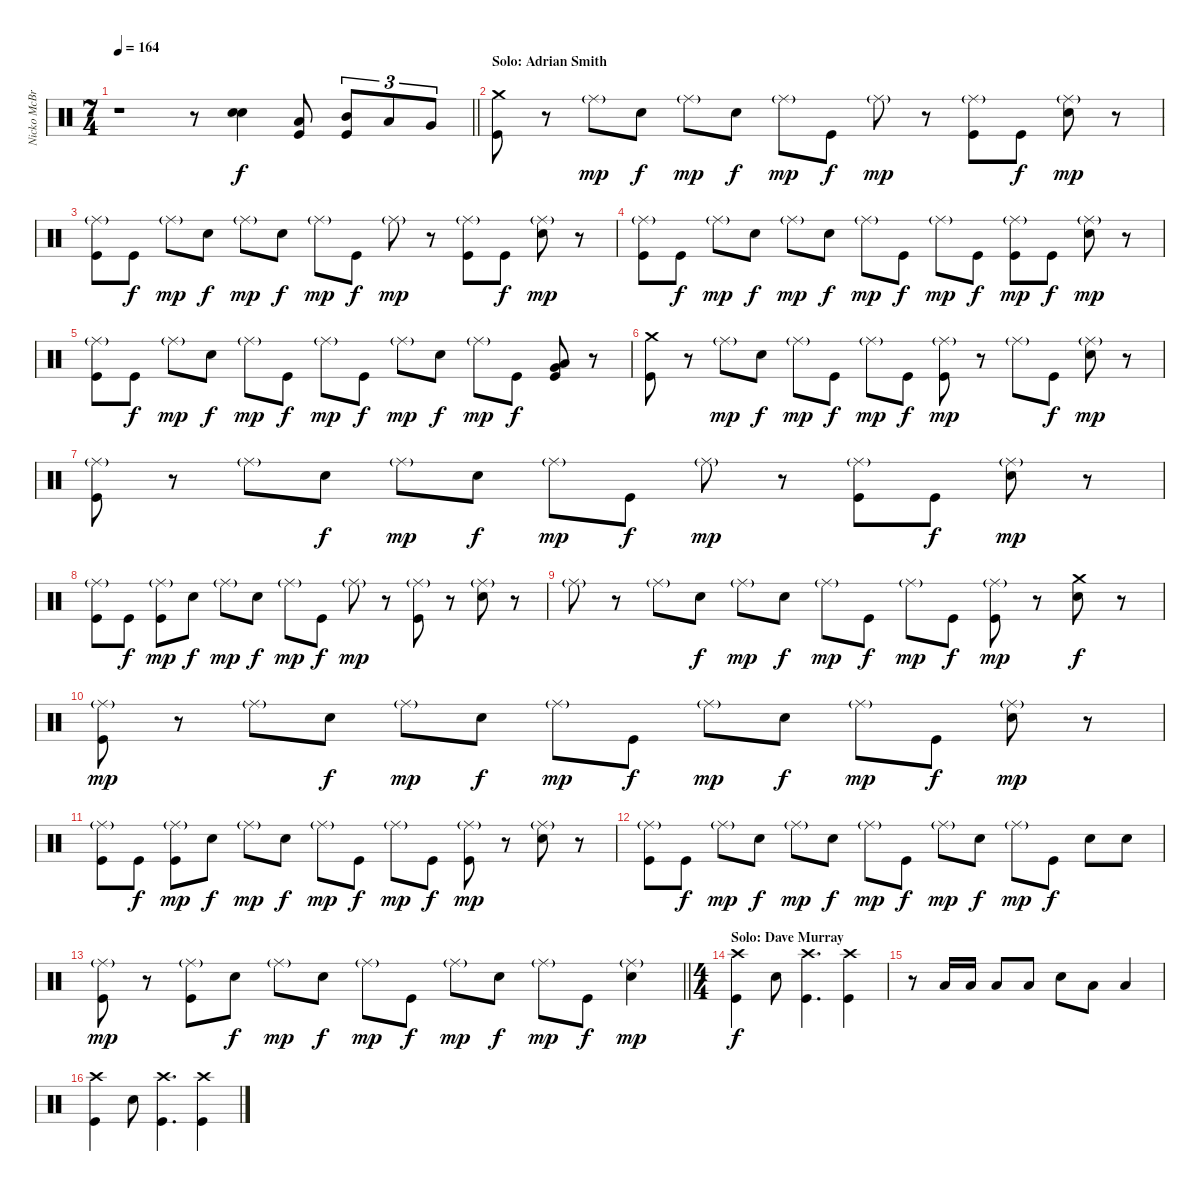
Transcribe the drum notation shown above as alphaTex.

\track ("Nicko McBrain" "Nicko McBr") {instrument percussion}
\staff {score}
\articulation defaults
\ts (7 4)
\tempo 164
\clef neutral
\barLineRight lightlight
\ks c
r.1{dy f} r.8 ("Electric Snare (hit)" "Electric Snare (hit)").4 ("Low Tom (hit)" "Kick (hit)").8 ("Mid Tom (hit)" "Kick (hit)").8{tu (3 2)} "Low Tom (hit)".8{tu (3 2)} "Very Low Tom (hit)".8{tu (3 2)} |
\section ("" "Solo: Adrian Smith")
("Crash medium (hit)" "Kick (hit)").8 r.8 "Ride (middle)"{g}.8{dy mp} "Electric Snare (hit)".8{dy f} "Ride (middle)"{g}.8{dy mp} "Electric Snare (hit)".8{dy f} "Ride (middle)"{g}.8{dy mp} "Kick (hit)".8{dy f} "Ride (middle)"{g}.8{dy mp} r.8 ("Ride (middle)"{g} "Kick (hit)").8 "Kick (hit)".8{dy f} ("Ride (middle)"{g} "Electric Snare (hit)").8{dy mp} r.8 |
("Ride (middle)"{g} "Kick (hit)").8 "Kick (hit)".8{dy f} "Ride (middle)"{g}.8{dy mp} "Electric Snare (hit)".8{dy f} "Ride (middle)"{g}.8{dy mp} "Electric Snare (hit)".8{dy f} "Ride (middle)"{g}.8{dy mp} "Kick (hit)".8{dy f} "Ride (middle)"{g}.8{dy mp} r.8 ("Ride (middle)"{g} "Kick (hit)").8 "Kick (hit)".8{dy f} ("Ride (middle)"{g} "Electric Snare (hit)").8{dy mp} r.8 |
("Ride (middle)"{g} "Kick (hit)").8 "Kick (hit)".8{dy f} "Ride (middle)"{g}.8{dy mp} "Electric Snare (hit)".8{dy f} "Ride (middle)"{g}.8{dy mp} "Electric Snare (hit)".8{dy f} "Ride (middle)"{g}.8{dy mp} "Kick (hit)".8{dy f} "Ride (middle)"{g}.8{dy mp} "Kick (hit)".8{dy f} ("Ride (middle)"{g} "Kick (hit)").8{dy mp} "Kick (hit)".8{dy f} ("Ride (middle)"{g} "Electric Snare (hit)").8{dy mp} r.8 |
("Ride (middle)"{g} "Kick (hit)").8 "Kick (hit)".8{dy f} "Ride (middle)"{g}.8{dy mp} "Electric Snare (hit)".8{dy f} "Ride (middle)"{g}.8{dy mp} "Kick (hit)".8{dy f} "Ride (middle)"{g}.8{dy mp} "Kick (hit)".8{dy f} "Ride (middle)"{g}.8{dy mp} "Electric Snare (hit)".8{dy f} "Ride (middle)"{g}.8{dy mp} "Kick (hit)".8{dy f} ("Very Low Tom (hit)" "Low Tom (hit)" "Kick (hit)").8 r.8 |
("Crash medium (hit)" "Kick (hit)").8 r.8 "Ride (middle)"{g}.8{dy mp} "Electric Snare (hit)".8{dy f} "Ride (middle)"{g}.8{dy mp} "Kick (hit)".8{dy f} "Ride (middle)"{g}.8{dy mp} "Kick (hit)".8{dy f} ("Ride (middle)"{g} "Kick (hit)").8{dy mp} r.8 "Ride (middle)"{g}.8 "Kick (hit)".8{dy f} ("Ride (middle)"{g} "Electric Snare (hit)").8{dy mp} r.8 |
("Ride (middle)"{g} "Kick (hit)").8 r.8 "Ride (middle)"{g}.8 "Electric Snare (hit)".8{dy f} "Ride (middle)"{g}.8{dy mp} "Electric Snare (hit)".8{dy f} "Ride (middle)"{g}.8{dy mp} "Kick (hit)".8{dy f} "Ride (middle)"{g}.8{dy mp} r.8 ("Ride (middle)"{g} "Kick (hit)").8 "Kick (hit)".8{dy f} ("Ride (middle)"{g} "Electric Snare (hit)").8{dy mp} r.8 |
("Ride (middle)"{g} "Kick (hit)").8 "Kick (hit)".8{dy f} ("Ride (middle)"{g} "Kick (hit)").8{dy mp} "Electric Snare (hit)".8{dy f} "Ride (middle)"{g}.8{dy mp} "Electric Snare (hit)".8{dy f} "Ride (middle)"{g}.8{dy mp} "Kick (hit)".8{dy f} "Ride (middle)"{g}.8{dy mp} r.8 ("Ride (middle)"{g} "Kick (hit)").8 r.8 ("Ride (middle)"{g} "Electric Snare (hit)").8 r.8 |
"Ride (middle)"{g}.8 r.8 "Ride (middle)"{g}.8 "Electric Snare (hit)".8{dy f} "Ride (middle)"{g}.8{dy mp} "Electric Snare (hit)".8{dy f} "Ride (middle)"{g}.8{dy mp} "Kick (hit)".8{dy f} "Ride (middle)"{g}.8{dy mp} "Kick (hit)".8{dy f} ("Ride (middle)"{g} "Kick (hit)").8{dy mp} r.8 ("Crash medium (hit)" "Electric Snare (hit)").8{dy f} r.8 |
("Ride (middle)"{g} "Kick (hit)").8{dy mp} r.8 "Ride (middle)"{g}.8 "Electric Snare (hit)".8{dy f} "Ride (middle)"{g}.8{dy mp} "Electric Snare (hit)".8{dy f} "Ride (middle)"{g}.8{dy mp} "Kick (hit)".8{dy f} "Ride (middle)"{g}.8{dy mp} "Electric Snare (hit)".8{dy f} "Ride (middle)"{g}.8{dy mp} "Kick (hit)".8{dy f} ("Ride (middle)"{g} "Electric Snare (hit)").8{dy mp} r.8 |
("Ride (middle)"{g} "Kick (hit)").8 "Kick (hit)".8{dy f} ("Ride (middle)"{g} "Kick (hit)").8{dy mp} "Electric Snare (hit)".8{dy f} "Ride (middle)"{g}.8{dy mp} "Electric Snare (hit)".8{dy f} "Ride (middle)"{g}.8{dy mp} "Kick (hit)".8{dy f} "Ride (middle)"{g}.8{dy mp} "Kick (hit)".8{dy f} ("Ride (middle)"{g} "Kick (hit)").8{dy mp} r.8 ("Ride (middle)"{g} "Electric Snare (hit)").8 r.8 |
("Ride (middle)"{g} "Kick (hit)").8 "Kick (hit)".8{dy f} "Ride (middle)"{g}.8{dy mp} "Electric Snare (hit)".8{dy f} "Ride (middle)"{g}.8{dy mp} "Electric Snare (hit)".8{dy f} "Ride (middle)"{g}.8{dy mp} "Kick (hit)".8{dy f} "Ride (middle)"{g}.8{dy mp} "Electric Snare (hit)".8{dy f} "Ride (middle)"{g}.8{dy mp} "Kick (hit)".8{dy f} "Electric Snare (hit)".8 "Electric Snare (hit)".8 |
\barLineRight lightlight
("Ride (middle)"{g} "Kick (hit)").8{dy mp} r.8 ("Ride (middle)"{g} "Kick (hit)").8 "Electric Snare (hit)".8{dy f} "Ride (middle)"{g}.8{dy mp} "Electric Snare (hit)".8{dy f} "Ride (middle)"{g}.8{dy mp} "Kick (hit)".8{dy f} "Ride (middle)"{g}.8{dy mp} "Electric Snare (hit)".8{dy f} "Ride (middle)"{g}.8{dy mp} "Kick (hit)".8{dy f} ("Ride (middle)"{g} "Electric Snare (hit)").4{dy mp} |
\ts (4 4)
\section ("" "Solo: Dave Murray")
("Crash high (hit)" "Kick (hit)").4{dy f} "Electric Snare (hit)".8 ("Crash high (hit)" "Kick (hit)").4{d} ("Crash high (hit)" "Kick (hit)").4 |
r.8 "Low Tom (hit)".16 "Low Tom (hit)".16 "Low Tom (hit)".8 "Low Tom (hit)".8 "Electric Snare (hit)".8 "Low Tom (hit)".8 "Low Tom (hit)".4 |
("Crash high (hit)" "Kick (hit)").4 "Electric Snare (hit)".8 ("Crash high (hit)" "Kick (hit)").4{d} ("Crash high (hit)" "Kick (hit)").4
